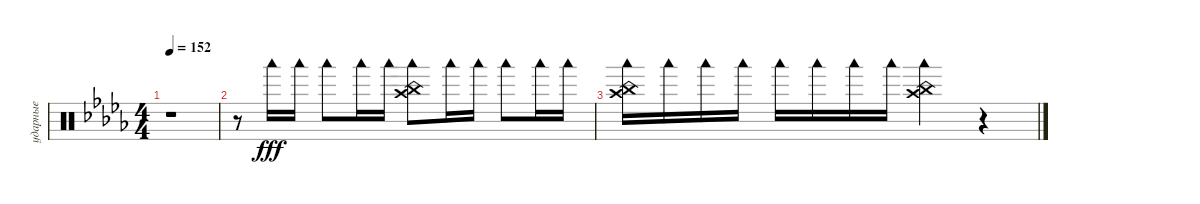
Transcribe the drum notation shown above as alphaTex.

\track ("ударные" "ударные") {instrument percussion}
\staff {score}
\articulation defaults
\ts (4 4)
\tempo 152
\clef neutral
\ks bbminor
r.1{dy fff} |
r.8 "Woodblock low (hit)".16 "Woodblock low (hit)".16 "Woodblock low (hit)".8 "Woodblock low (hit)".16 "Woodblock low (hit)".16 ("Woodblock low (hit)" "China (hit)" "Crash high (hit)").8 "Woodblock low (hit)".16 "Woodblock low (hit)".16 "Woodblock low (hit)".8 "Woodblock low (hit)".16 "Woodblock low (hit)".16 |
("Woodblock low (hit)" "China (hit)" "Crash high (hit)").16 "Woodblock low (hit)".16 "Woodblock low (hit)".16 "Woodblock low (hit)".16 "Woodblock low (hit)".16 "Woodblock low (hit)".16 "Woodblock low (hit)".16 "Woodblock low (hit)".16 ("Woodblock low (hit)" "China (hit)" "Crash high (hit)").4 r.4
